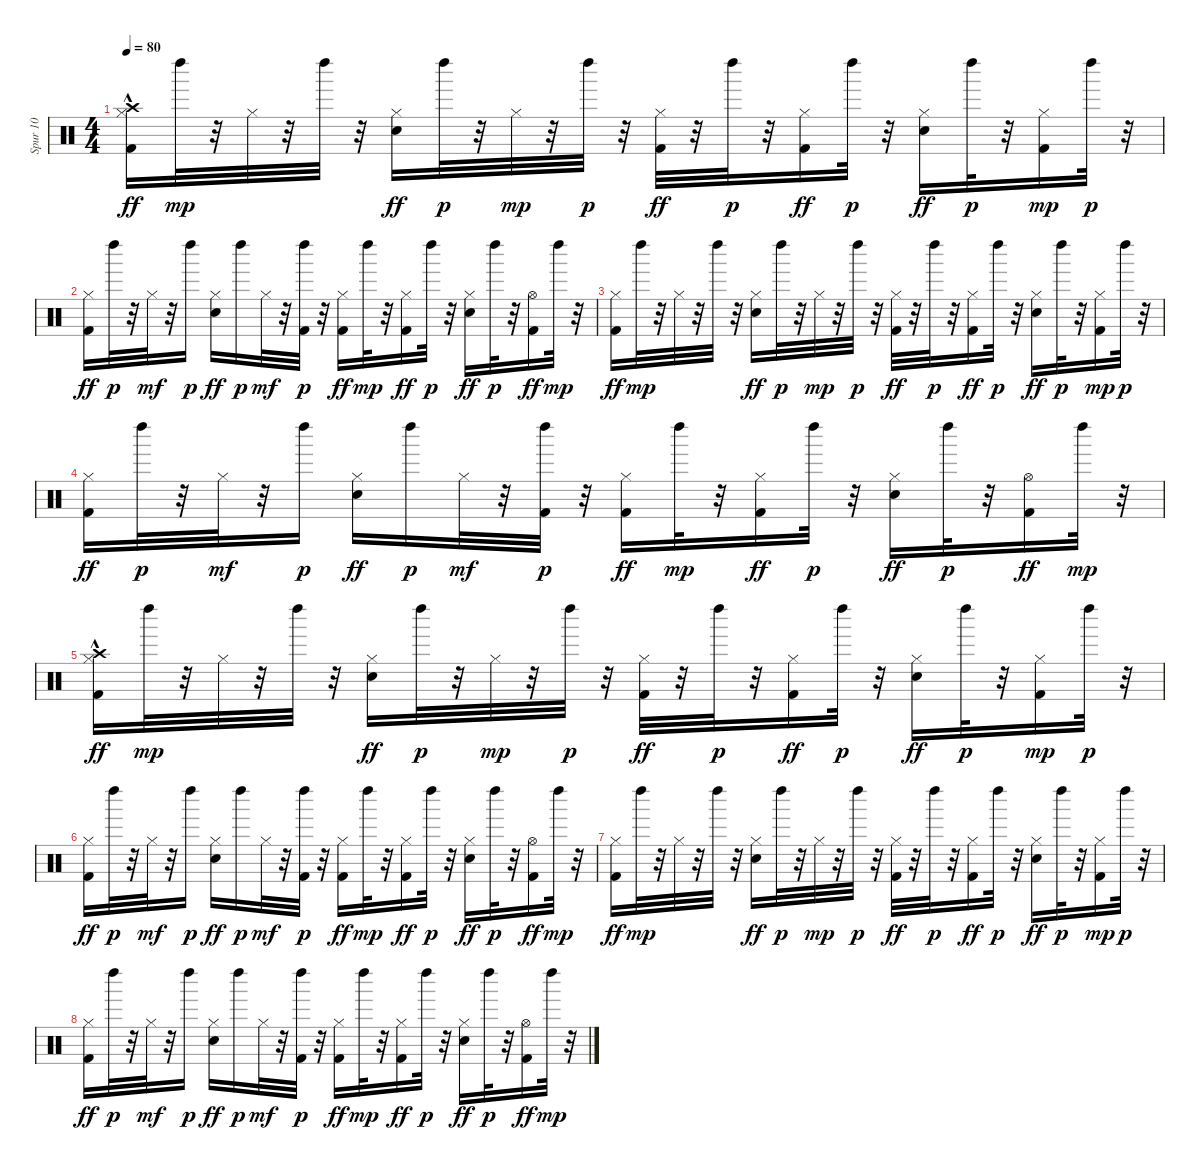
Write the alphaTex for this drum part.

\track ("Spur 10" "Spur 10") {instrument percussion}
\staff {score}
\articulation defaults
\ts (4 4)
\tempo 80
\clef neutral
\ks c
("Hi-Hat (closed)" "Kick (hit) 2" "Crash high (hit)"{hac}).16{dy ff} "Left Maraca (hit)".32{dy mp} r.32 "Hi-Hat (closed)".32 r.32 "Left Maraca (hit)".32 r.32 ("Electric Snare (hit)" "Hi-Hat (closed)").16{dy ff} "Left Maraca (hit)".32{dy p} r.32 "Hi-Hat (closed)".32{dy mp} r.32 "Left Maraca (hit)".32{dy p} r.32 ("Hi-Hat (closed)" "Kick (hit) 2").32{dy ff} r.32 "Left Maraca (hit)".32{dy p} r.32 ("Hi-Hat (closed)" "Kick (hit) 2").16{dy ff} "Left Maraca (hit)".32{dy p} r.32 ("Electric Snare (hit)" "Hi-Hat (closed)").16{dy ff} "Left Maraca (hit)".32{dy p} r.32 ("Kick (hit) 2" "Hi-Hat (closed)").16{dy mp} "Left Maraca (hit)".32{dy p} r.32 |
("Hi-Hat (closed)" "Kick (hit) 2").16{dy ff} "Left Maraca (hit)".32{dy p} r.32 "Hi-Hat (closed)".32{dy mf} r.32 "Left Maraca (hit)".16{dy p} ("Electric Snare (hit)" "Hi-Hat (closed)").16{dy ff} "Left Maraca (hit)".16{dy p} "Hi-Hat (closed)".32{dy mf} r.32 ("Kick (hit) 2" "Left Maraca (hit)").32{dy p} r.32 ("Hi-Hat (closed)" "Kick (hit) 2").16{dy ff} "Left Maraca (hit)".32{dy mp} r.32 ("Hi-Hat (closed)" "Kick (hit) 2").16{dy ff} "Left Maraca (hit)".32{dy p} r.32 ("Electric Snare (hit)" "Hi-Hat (closed)").16{dy ff} "Left Maraca (hit)".32{dy p} r.32 ("Kick (hit) 2" "Hi-Hat (open)").16{dy ff} "Left Maraca (hit)".32{dy mp} r.32 |
("Hi-Hat (closed)" "Kick (hit) 2").16{dy ff} "Left Maraca (hit)".32{dy mp} r.32 "Hi-Hat (closed)".32 r.32 "Left Maraca (hit)".32 r.32 ("Electric Snare (hit)" "Hi-Hat (closed)").16{dy ff} "Left Maraca (hit)".32{dy p} r.32 "Hi-Hat (closed)".32{dy mp} r.32 "Left Maraca (hit)".32{dy p} r.32 ("Hi-Hat (closed)" "Kick (hit) 2").32{dy ff} r.32 "Left Maraca (hit)".32{dy p} r.32 ("Hi-Hat (closed)" "Kick (hit) 2").16{dy ff} "Left Maraca (hit)".32{dy p} r.32 ("Electric Snare (hit)" "Hi-Hat (closed)").16{dy ff} "Left Maraca (hit)".32{dy p} r.32 ("Kick (hit) 2" "Hi-Hat (closed)").16{dy mp} "Left Maraca (hit)".32{dy p} r.32 |
("Hi-Hat (closed)" "Kick (hit) 2").16{dy ff} "Left Maraca (hit)".32{dy p} r.32 "Hi-Hat (closed)".32{dy mf} r.32 "Left Maraca (hit)".16{dy p} ("Electric Snare (hit)" "Hi-Hat (closed)").16{dy ff} "Left Maraca (hit)".16{dy p} "Hi-Hat (closed)".32{dy mf} r.32 ("Kick (hit) 2" "Left Maraca (hit)").32{dy p} r.32 ("Hi-Hat (closed)" "Kick (hit) 2").16{dy ff} "Left Maraca (hit)".32{dy mp} r.32 ("Hi-Hat (closed)" "Kick (hit) 2").16{dy ff} "Left Maraca (hit)".32{dy p} r.32 ("Electric Snare (hit)" "Hi-Hat (closed)").16{dy ff} "Left Maraca (hit)".32{dy p} r.32 ("Kick (hit) 2" "Hi-Hat (open)").16{dy ff} "Left Maraca (hit)".32{dy mp} r.32 |
("Hi-Hat (closed)" "Kick (hit) 2" "Crash high (hit)"{hac}).16{dy ff} "Left Maraca (hit)".32{dy mp} r.32 "Hi-Hat (closed)".32 r.32 "Left Maraca (hit)".32 r.32 ("Electric Snare (hit)" "Hi-Hat (closed)").16{dy ff} "Left Maraca (hit)".32{dy p} r.32 "Hi-Hat (closed)".32{dy mp} r.32 "Left Maraca (hit)".32{dy p} r.32 ("Hi-Hat (closed)" "Kick (hit) 2").32{dy ff} r.32 "Left Maraca (hit)".32{dy p} r.32 ("Hi-Hat (closed)" "Kick (hit) 2").16{dy ff} "Left Maraca (hit)".32{dy p} r.32 ("Electric Snare (hit)" "Hi-Hat (closed)").16{dy ff} "Left Maraca (hit)".32{dy p} r.32 ("Kick (hit) 2" "Hi-Hat (closed)").16{dy mp} "Left Maraca (hit)".32{dy p} r.32 |
("Hi-Hat (closed)" "Kick (hit) 2").16{dy ff} "Left Maraca (hit)".32{dy p} r.32 "Hi-Hat (closed)".32{dy mf} r.32 "Left Maraca (hit)".16{dy p} ("Electric Snare (hit)" "Hi-Hat (closed)").16{dy ff} "Left Maraca (hit)".16{dy p} "Hi-Hat (closed)".32{dy mf} r.32 ("Kick (hit) 2" "Left Maraca (hit)").32{dy p} r.32 ("Hi-Hat (closed)" "Kick (hit) 2").16{dy ff} "Left Maraca (hit)".32{dy mp} r.32 ("Hi-Hat (closed)" "Kick (hit) 2").16{dy ff} "Left Maraca (hit)".32{dy p} r.32 ("Electric Snare (hit)" "Hi-Hat (closed)").16{dy ff} "Left Maraca (hit)".32{dy p} r.32 ("Kick (hit) 2" "Hi-Hat (open)").16{dy ff} "Left Maraca (hit)".32{dy mp} r.32 |
("Hi-Hat (closed)" "Kick (hit) 2").16{dy ff} "Left Maraca (hit)".32{dy mp} r.32 "Hi-Hat (closed)".32 r.32 "Left Maraca (hit)".32 r.32 ("Electric Snare (hit)" "Hi-Hat (closed)").16{dy ff} "Left Maraca (hit)".32{dy p} r.32 "Hi-Hat (closed)".32{dy mp} r.32 "Left Maraca (hit)".32{dy p} r.32 ("Hi-Hat (closed)" "Kick (hit) 2").32{dy ff} r.32 "Left Maraca (hit)".32{dy p} r.32 ("Hi-Hat (closed)" "Kick (hit) 2").16{dy ff} "Left Maraca (hit)".32{dy p} r.32 ("Electric Snare (hit)" "Hi-Hat (closed)").16{dy ff} "Left Maraca (hit)".32{dy p} r.32 ("Kick (hit) 2" "Hi-Hat (closed)").16{dy mp} "Left Maraca (hit)".32{dy p} r.32 |
("Hi-Hat (closed)" "Kick (hit) 2").16{dy ff} "Left Maraca (hit)".32{dy p} r.32 "Hi-Hat (closed)".32{dy mf} r.32 "Left Maraca (hit)".16{dy p} ("Electric Snare (hit)" "Hi-Hat (closed)").16{dy ff} "Left Maraca (hit)".16{dy p} "Hi-Hat (closed)".32{dy mf} r.32 ("Kick (hit) 2" "Left Maraca (hit)").32{dy p} r.32 ("Hi-Hat (closed)" "Kick (hit) 2").16{dy ff} "Left Maraca (hit)".32{dy mp} r.32 ("Hi-Hat (closed)" "Kick (hit) 2").16{dy ff} "Left Maraca (hit)".32{dy p} r.32 ("Electric Snare (hit)" "Hi-Hat (closed)").16{dy ff} "Left Maraca (hit)".32{dy p} r.32 ("Kick (hit) 2" "Hi-Hat (open)").16{dy ff} "Left Maraca (hit)".32{dy mp} r.32
